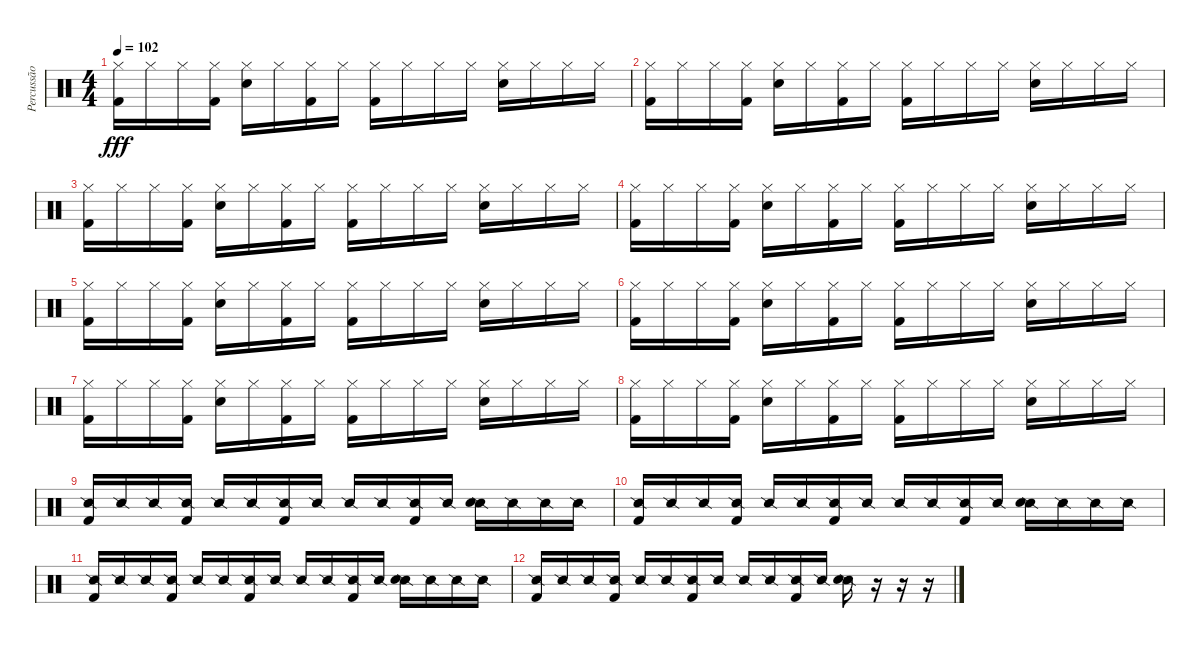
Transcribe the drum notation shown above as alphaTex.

\track ("Percussão" "Percussão") {instrument percussion}
\staff {score}
\articulation defaults
\ts (4 4)
\tempo 102
\clef neutral
\ks c
("Hi-Hat (closed)" "Kick (hit) 2").16{dy fff} "Hi-Hat (closed)".16 "Hi-Hat (closed)".16 ("Hi-Hat (closed)" "Kick (hit) 2").16 ("Hi-Hat (closed)" "Snare (hit) 2").16 "Hi-Hat (closed)".16 ("Hi-Hat (closed)" "Kick (hit) 2").16 "Hi-Hat (closed)".16 ("Hi-Hat (closed)" "Kick (hit) 2").16 "Hi-Hat (closed)".16 "Hi-Hat (closed)".16 "Hi-Hat (closed)".16 ("Hi-Hat (closed)" "Snare (hit) 2").16 "Hi-Hat (closed)".16 "Hi-Hat (closed)".16 "Hi-Hat (closed)".16 |
("Hi-Hat (closed)" "Kick (hit) 2").16 "Hi-Hat (closed)".16 "Hi-Hat (closed)".16 ("Hi-Hat (closed)" "Kick (hit) 2").16 ("Hi-Hat (closed)" "Snare (hit) 2").16 "Hi-Hat (closed)".16 ("Hi-Hat (closed)" "Kick (hit) 2").16 "Hi-Hat (closed)".16 ("Hi-Hat (closed)" "Kick (hit) 2").16 "Hi-Hat (closed)".16 "Hi-Hat (closed)".16 "Hi-Hat (closed)".16 ("Hi-Hat (closed)" "Snare (hit) 2").16 "Hi-Hat (closed)".16 "Hi-Hat (closed)".16 "Hi-Hat (closed)".16 |
("Hi-Hat (closed)" "Kick (hit) 2").16 "Hi-Hat (closed)".16 "Hi-Hat (closed)".16 ("Hi-Hat (closed)" "Kick (hit) 2").16 ("Hi-Hat (closed)" "Snare (hit) 2").16 "Hi-Hat (closed)".16 ("Hi-Hat (closed)" "Kick (hit) 2").16 "Hi-Hat (closed)".16 ("Hi-Hat (closed)" "Kick (hit) 2").16 "Hi-Hat (closed)".16 "Hi-Hat (closed)".16 "Hi-Hat (closed)".16 ("Hi-Hat (closed)" "Snare (hit) 2").16 "Hi-Hat (closed)".16 "Hi-Hat (closed)".16 "Hi-Hat (closed)".16 |
("Hi-Hat (closed)" "Kick (hit) 2").16 "Hi-Hat (closed)".16 "Hi-Hat (closed)".16 ("Hi-Hat (closed)" "Kick (hit) 2").16 ("Hi-Hat (closed)" "Snare (hit) 2").16 "Hi-Hat (closed)".16 ("Hi-Hat (closed)" "Kick (hit) 2").16 "Hi-Hat (closed)".16 ("Hi-Hat (closed)" "Kick (hit) 2").16 "Hi-Hat (closed)".16 "Hi-Hat (closed)".16 "Hi-Hat (closed)".16 ("Hi-Hat (closed)" "Snare (hit) 2").16 "Hi-Hat (closed)".16 "Hi-Hat (closed)".16 "Hi-Hat (closed)".16 |
("Hi-Hat (closed)" "Kick (hit) 2").16 "Hi-Hat (closed)".16 "Hi-Hat (closed)".16 ("Hi-Hat (closed)" "Kick (hit) 2").16 ("Hi-Hat (closed)" "Snare (hit) 2").16 "Hi-Hat (closed)".16 ("Hi-Hat (closed)" "Kick (hit) 2").16 "Hi-Hat (closed)".16 ("Hi-Hat (closed)" "Kick (hit) 2").16 "Hi-Hat (closed)".16 "Hi-Hat (closed)".16 "Hi-Hat (closed)".16 ("Hi-Hat (closed)" "Snare (hit) 2").16 "Hi-Hat (closed)".16 "Hi-Hat (closed)".16 "Hi-Hat (closed)".16 |
("Hi-Hat (closed)" "Kick (hit) 2").16 "Hi-Hat (closed)".16 "Hi-Hat (closed)".16 ("Hi-Hat (closed)" "Kick (hit) 2").16 ("Hi-Hat (closed)" "Snare (hit) 2").16 "Hi-Hat (closed)".16 ("Hi-Hat (closed)" "Kick (hit) 2").16 "Hi-Hat (closed)".16 ("Hi-Hat (closed)" "Kick (hit) 2").16 "Hi-Hat (closed)".16 "Hi-Hat (closed)".16 "Hi-Hat (closed)".16 ("Hi-Hat (closed)" "Snare (hit) 2").16 "Hi-Hat (closed)".16 "Hi-Hat (closed)".16 "Hi-Hat (closed)".16 |
("Hi-Hat (closed)" "Kick (hit) 2").16 "Hi-Hat (closed)".16 "Hi-Hat (closed)".16 ("Hi-Hat (closed)" "Kick (hit) 2").16 ("Hi-Hat (closed)" "Snare (hit) 2").16 "Hi-Hat (closed)".16 ("Hi-Hat (closed)" "Kick (hit) 2").16 "Hi-Hat (closed)".16 ("Hi-Hat (closed)" "Kick (hit) 2").16 "Hi-Hat (closed)".16 "Hi-Hat (closed)".16 "Hi-Hat (closed)".16 ("Hi-Hat (closed)" "Snare (hit) 2").16 "Hi-Hat (closed)".16 "Hi-Hat (closed)".16 "Hi-Hat (closed)".16 |
("Hi-Hat (closed)" "Kick (hit) 2").16 "Hi-Hat (closed)".16 "Hi-Hat (closed)".16 ("Hi-Hat (closed)" "Kick (hit) 2").16 ("Hi-Hat (closed)" "Snare (hit) 2").16 "Hi-Hat (closed)".16 ("Hi-Hat (closed)" "Kick (hit) 2").16 "Hi-Hat (closed)".16 ("Hi-Hat (closed)" "Kick (hit) 2").16 "Hi-Hat (closed)".16 "Hi-Hat (closed)".16 "Hi-Hat (closed)".16 ("Hi-Hat (closed)" "Snare (hit) 2").16 "Hi-Hat (closed)".16 "Hi-Hat (closed)".16 "Hi-Hat (closed)".16 |
("Snare (side stick) 2" "Kick (hit) 2").16 "Snare (side stick) 2".16 "Snare (side stick) 2".16 ("Snare (side stick) 2" "Kick (hit) 2").16 "Snare (side stick) 2".16 "Snare (side stick) 2".16 ("Snare (side stick) 2" "Kick (hit) 2").16 "Snare (side stick) 2".16 "Snare (side stick) 2".16 "Snare (side stick) 2".16 ("Snare (side stick) 2" "Kick (hit) 2").16 "Snare (side stick) 2".16 ("Snare (side stick) 2" "Snare (hit) 2").16 "Snare (side stick) 2".16 "Snare (side stick) 2".16 "Snare (side stick) 2".16 |
("Snare (side stick) 2" "Kick (hit) 2").16 "Snare (side stick) 2".16 "Snare (side stick) 2".16 ("Snare (side stick) 2" "Kick (hit) 2").16 "Snare (side stick) 2".16 "Snare (side stick) 2".16 ("Snare (side stick) 2" "Kick (hit) 2").16 "Snare (side stick) 2".16 "Snare (side stick) 2".16 "Snare (side stick) 2".16 ("Snare (side stick) 2" "Kick (hit) 2").16 "Snare (side stick) 2".16 ("Snare (side stick) 2" "Snare (hit) 2").16 "Snare (side stick) 2".16 "Snare (side stick) 2".16 "Snare (side stick) 2".16 |
("Snare (side stick) 2" "Kick (hit) 2").16 "Snare (side stick) 2".16 "Snare (side stick) 2".16 ("Snare (side stick) 2" "Kick (hit) 2").16 "Snare (side stick) 2".16 "Snare (side stick) 2".16 ("Snare (side stick) 2" "Kick (hit) 2").16 "Snare (side stick) 2".16 "Snare (side stick) 2".16 "Snare (side stick) 2".16 ("Snare (side stick) 2" "Kick (hit) 2").16 "Snare (side stick) 2".16 ("Snare (side stick) 2" "Snare (hit) 2").16 "Snare (side stick) 2".16 "Snare (side stick) 2".16 "Snare (side stick) 2".16 |
("Snare (side stick) 2" "Kick (hit) 2").16 "Snare (side stick) 2".16 "Snare (side stick) 2".16 ("Snare (side stick) 2" "Kick (hit) 2").16 "Snare (side stick) 2".16 "Snare (side stick) 2".16 ("Snare (side stick) 2" "Kick (hit) 2").16 "Snare (side stick) 2".16 "Snare (side stick) 2".16 "Snare (side stick) 2".16 ("Snare (side stick) 2" "Kick (hit) 2").16 "Snare (side stick) 2".16 ("Snare (side stick) 2" "Snare (hit) 2").16 r.16 r.16 r.16
